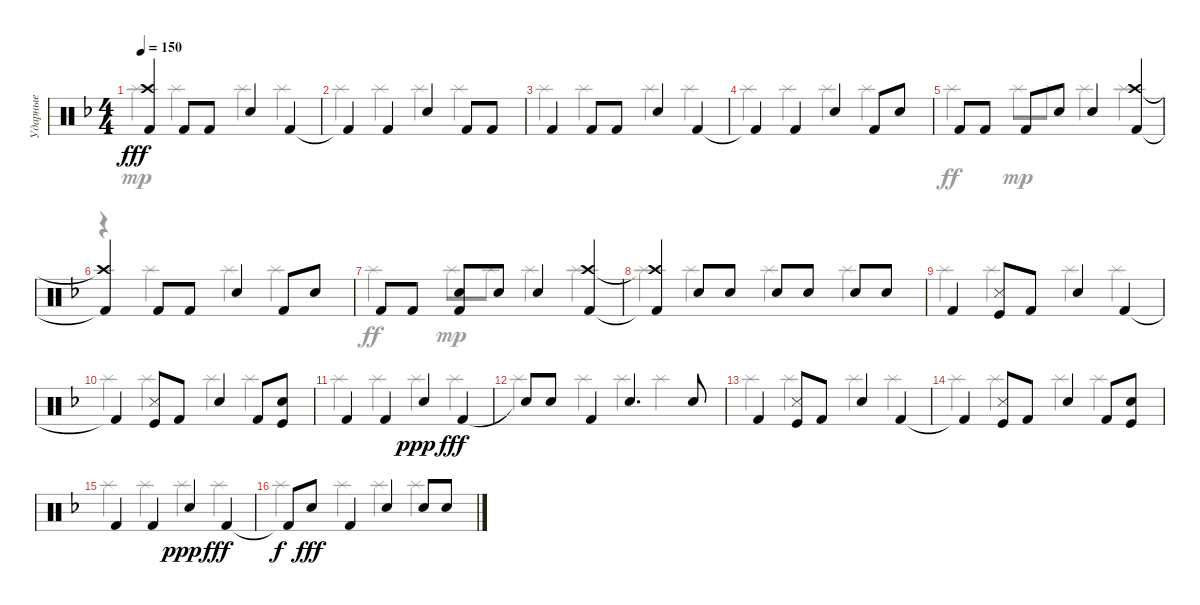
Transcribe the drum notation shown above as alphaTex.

\track ("Ударные" "Ударные") {instrument percussion}
\staff {score}
\articulation defaults
\voice
\ts (4 4)
\tempo 150
\clef neutral
\ks dminor
("Crash high (hit)" "Kick (hit) 2").4{dy fff} "Kick (hit) 2".8 "Kick (hit) 2".8 "Snare (hit) 2".4 "Kick (hit) 2".4 |
"Kick (hit) 2"{t}.4 "Kick (hit) 2".4 "Snare (hit) 2".4 "Kick (hit) 2".8 "Kick (hit) 2".8 |
"Kick (hit) 2".4 "Kick (hit) 2".8 "Kick (hit) 2".8 "Snare (hit) 2".4 "Kick (hit) 2".4 |
"Kick (hit) 2"{t}.4 "Kick (hit) 2".4 "Snare (hit) 2".4 "Kick (hit) 2".8 "Snare (hit) 2".8 |
"Kick (hit) 2".8 "Kick (hit) 2".8 "Kick (hit) 2".8 "Snare (hit) 2".8 "Snare (hit) 2".4 ("Kick (hit) 2" "Crash high (hit)").4 |
("Kick (hit) 2"{t} "Crash high (hit)"{t}).4 "Kick (hit) 2".8 "Kick (hit) 2".8 "Snare (hit) 2".4 "Kick (hit) 2".8 "Snare (hit) 2".8 |
"Kick (hit) 2".8 "Kick (hit) 2".8 ("Snare (hit) 2" "Kick (hit) 2").8 "Snare (hit) 2".8 "Snare (hit) 2".4 ("Kick (hit) 2" "Crash high (hit)").4 |
("Kick (hit) 2"{t} "Crash high (hit)"{t}).4 "Snare (hit) 2".8{volume 4} "Snare (hit) 2".8{volume 8} "Snare (hit) 2".8 "Snare (hit) 2".8 "Snare (hit) 2".8 "Snare (hit) 2".8 |
"Kick (hit) 2".4 ("Kick (hit)" "Metronome (hit)").8 "Kick (hit) 2".8 "Snare (hit) 2".4 "Kick (hit) 2".4 |
"Kick (hit) 2"{t}.4 ("Kick (hit)" "Metronome (hit)").8 "Kick (hit) 2".8 "Snare (hit) 2".4 "Kick (hit) 2".8 ("Kick (hit)" "Snare (hit) 2").8 |
"Kick (hit) 2".4 "Kick (hit) 2".4 "Snare (hit) 2".4{dy ppp} "Kick (hit) 2".4{dy fff} |
"Snare (hit) 2"{t}.8 "Snare (hit) 2".8 "Kick (hit) 2".4 "Snare (hit) 2".4{d} "Snare (hit) 2".8 |
"Kick (hit) 2".4 ("Kick (hit)" "Metronome (hit)").8 "Kick (hit) 2".8 "Snare (hit) 2".4 "Kick (hit) 2".4 |
"Kick (hit) 2"{t}.4 ("Kick (hit)" "Metronome (hit)").8 "Kick (hit) 2".8 "Snare (hit) 2".4 "Kick (hit) 2".8 ("Kick (hit)" "Snare (hit) 2").8 |
"Kick (hit) 2".4 "Kick (hit) 2".4 "Snare (hit) 2".4{dy ppp} "Kick (hit) 2".4{dy fff} |
"Kick (hit) 2"{t}.8{dy f} "Snare (hit) 2".8{dy fff} "Kick (hit) 2".4 "Snare (hit) 2".4 "Snare (hit) 2".8 "Snare (hit) 2".8
\voice
\clef neutral
\ottava regular
\simile none
\ks dminor "Splash (hit)".4{dy mp} "Splash (hit)".4 "Splash (hit)".4 "Splash (hit)".4
|
"Splash (hit)".4 "Splash (hit)".4 "Splash (hit)".4 "Splash (hit)".4 |
"Splash (hit)".4 "Splash (hit)".4 "Splash (hit)".4 "Splash (hit)".4 |
"Splash (hit)".4 "Splash (hit)".4 "Splash (hit)".4 "Splash (hit)".4 |
"Splash (hit)".4{dy ff} "Splash (hit)".8{dy mp} "Splash (hit)".8 "Splash (hit)".4 "Splash (hit)".4 |
r.4 "Splash (hit)".4 "Splash (hit)".4 "Splash (hit)".4 |
"Splash (hit)".4{dy ff} "Splash (hit)".8{dy mp} "Splash (hit)".8 "Splash (hit)".4 "Splash (hit)".4 |
"Splash (hit)".4 "Splash (hit)".4 "Splash (hit)".4 "Splash (hit)".4 |
"Splash (hit)".4 "Splash (hit)".4 "Splash (hit)".4 "Splash (hit)".4 |
"Splash (hit)".4 "Splash (hit)".4 "Splash (hit)".4 "Splash (hit)".4 |
"Splash (hit)".4 "Splash (hit)".4 "Splash (hit)".4 "Splash (hit)".4 |
"Splash (hit)".4 "Splash (hit)".4 "Splash (hit)".4 "Splash (hit)".4 |
"Splash (hit)".4 "Splash (hit)".4 "Splash (hit)".4 "Splash (hit)".4 |
"Splash (hit)".4 "Splash (hit)".4 "Splash (hit)".4 "Splash (hit)".4 |
"Splash (hit)".4 "Splash (hit)".4 "Splash (hit)".4 "Splash (hit)".4 |
"Splash (hit)".4 "Splash (hit)".4 "Splash (hit)".4 "Splash (hit)".4
